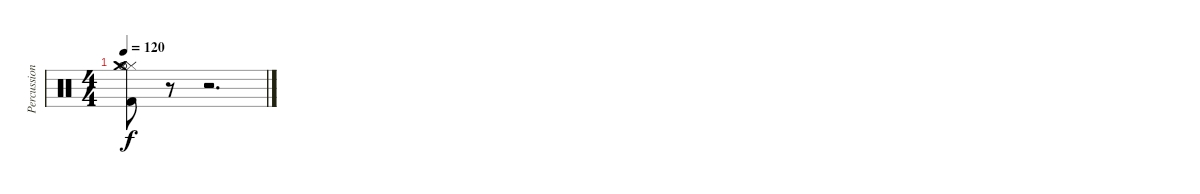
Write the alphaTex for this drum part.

\track ("Percussions" "Percussion") {instrument percussion}
\staff {score}
\articulation defaults
\ts (4 4)
\tempo 120
\clef neutral
\ks c
("Hi-Hat (closed)" "Kick (hit) 2" "Hi-Hat (open)" "Crash medium (hit)").8{dy f} r.8 r.2{d}
